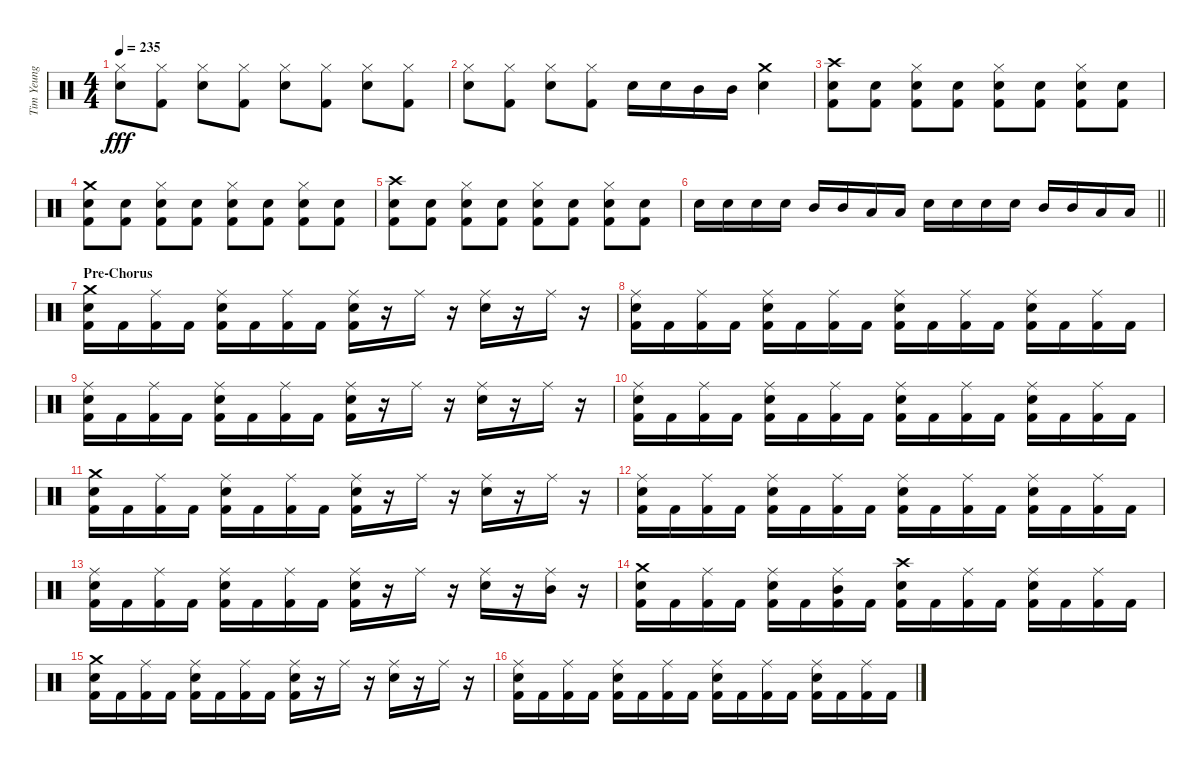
\track ("Tim Yeung" "Tim Yeung") {instrument percussion}
\staff {score}
\articulation defaults
\ts (4 4)
\tempo 235
\clef neutral
\ks c
("Hi-Hat (closed)" "Electric Snare (hit)").8{dy fff} ("Hi-Hat (closed)" "Kick (hit) 2").8 ("Hi-Hat (closed)" "Electric Snare (hit)").8 ("Hi-Hat (closed)" "Kick (hit) 2").8 ("Hi-Hat (closed)" "Electric Snare (hit)").8 ("Hi-Hat (closed)" "Kick (hit) 2").8 ("Hi-Hat (closed)" "Electric Snare (hit)").8 ("Hi-Hat (closed)" "Kick (hit) 2").8 |
("Hi-Hat (closed)" "Electric Snare (hit)").8 ("Hi-Hat (closed)" "Kick (hit) 2").8 ("Hi-Hat (closed)" "Electric Snare (hit)").8 ("Hi-Hat (closed)" "Kick (hit) 2").8 "Electric Snare (hit)".16 "Electric Snare (hit)".16 "Mid Tom (hit)".16 "Mid Tom (hit)".16 ("Crash medium (hit)" "Electric Snare (hit)").4 |
("Crash high (hit)" "Electric Snare (hit)" "Kick (hit) 2").8 ("Electric Snare (hit)" "Kick (hit) 2").8 ("Hi-Hat (closed)" "Electric Snare (hit)" "Kick (hit) 2").8 ("Electric Snare (hit)" "Kick (hit) 2").8 ("Hi-Hat (closed)" "Electric Snare (hit)" "Kick (hit) 2").8 ("Electric Snare (hit)" "Kick (hit) 2").8 ("Hi-Hat (closed)" "Electric Snare (hit)" "Kick (hit) 2").8 ("Electric Snare (hit)" "Kick (hit) 2").8 |
("Crash medium (hit)" "Electric Snare (hit)" "Kick (hit) 2").8 ("Electric Snare (hit)" "Kick (hit) 2").8 ("Hi-Hat (closed)" "Electric Snare (hit)" "Kick (hit) 2").8 ("Electric Snare (hit)" "Kick (hit) 2").8 ("Hi-Hat (closed)" "Electric Snare (hit)" "Kick (hit) 2").8 ("Electric Snare (hit)" "Kick (hit) 2").8 ("Hi-Hat (closed)" "Electric Snare (hit)" "Kick (hit) 2").8 ("Electric Snare (hit)" "Kick (hit) 2").8 |
("Crash high (hit)" "Electric Snare (hit)" "Kick (hit) 2").8 ("Electric Snare (hit)" "Kick (hit) 2").8 ("Hi-Hat (closed)" "Electric Snare (hit)" "Kick (hit) 2").8 ("Electric Snare (hit)" "Kick (hit) 2").8 ("Hi-Hat (closed)" "Electric Snare (hit)" "Kick (hit) 2").8 ("Electric Snare (hit)" "Kick (hit) 2").8 ("Hi-Hat (closed)" "Electric Snare (hit)" "Kick (hit) 2").8 ("Electric Snare (hit)" "Kick (hit) 2").8 |
\barLineRight lightlight "Electric Snare (hit)".16 "Electric Snare (hit)".16 "Electric Snare (hit)".16 "Electric Snare (hit)".16 "Mid Tom (hit)".16 "Mid Tom (hit)".16 "Low Tom (hit)".16 "Low Tom (hit)".16 "Electric Snare (hit)".16 "Electric Snare (hit)".16 "Electric Snare (hit)".16 "Electric Snare (hit)".16 "Mid Tom (hit)".16 "Mid Tom (hit)".16 "Low Tom (hit)".16 "Low Tom (hit)".16
|
\section ("" "Pre-Chorus")
("Crash medium (hit)" "Electric Snare (hit)" "Kick (hit) 2").16 "Kick (hit) 2".16 ("Ride (middle)" "Kick (hit) 2").16 "Kick (hit) 2".16 ("Ride (middle)" "Electric Snare (hit)" "Kick (hit) 2").16 "Kick (hit) 2".16 ("Ride (middle)" "Kick (hit) 2").16 "Kick (hit) 2".16 ("Ride (middle)" "Electric Snare (hit)" "Kick (hit) 2").16 r.16 "Ride (middle)".16 r.16 ("Ride (middle)" "Electric Snare (hit)").16 r.16 "Ride (middle)".16 r.16 |
("Ride (middle)" "Electric Snare (hit)" "Kick (hit) 2").16 "Kick (hit) 2".16 ("Ride (middle)" "Kick (hit) 2").16 "Kick (hit) 2".16 ("Ride (middle)" "Electric Snare (hit)" "Kick (hit) 2").16 "Kick (hit) 2".16 ("Ride (middle)" "Kick (hit) 2").16 "Kick (hit) 2".16 ("Ride (middle)" "Electric Snare (hit)" "Kick (hit) 2").16 "Kick (hit) 2".16 ("Ride (middle)" "Kick (hit) 2").16 "Kick (hit) 2".16 ("Ride (middle)" "Electric Snare (hit)" "Kick (hit) 2").16 "Kick (hit) 2".16 ("Ride (middle)" "Kick (hit) 2").16 "Kick (hit) 2".16 |
("Ride (middle)" "Electric Snare (hit)" "Kick (hit) 2").16 "Kick (hit) 2".16 ("Ride (middle)" "Kick (hit) 2").16 "Kick (hit) 2".16 ("Ride (middle)" "Electric Snare (hit)" "Kick (hit) 2").16 "Kick (hit) 2".16 ("Ride (middle)" "Kick (hit) 2").16 "Kick (hit) 2".16 ("Ride (middle)" "Electric Snare (hit)" "Kick (hit) 2").16 r.16 "Ride (middle)".16 r.16 ("Ride (middle)" "Electric Snare (hit)").16 r.16 "Ride (middle)".16 r.16 |
("Ride (middle)" "Electric Snare (hit)" "Kick (hit) 2").16 "Kick (hit) 2".16 ("Ride (middle)" "Kick (hit) 2").16 "Kick (hit) 2".16 ("Ride (middle)" "Electric Snare (hit)" "Kick (hit) 2").16 "Kick (hit) 2".16 ("Ride (middle)" "Kick (hit) 2").16 "Kick (hit) 2".16 ("Ride (middle)" "Electric Snare (hit)" "Kick (hit) 2").16 "Kick (hit) 2".16 ("Ride (middle)" "Kick (hit) 2").16 "Kick (hit) 2".16 ("Ride (middle)" "Electric Snare (hit)" "Kick (hit) 2").16 "Kick (hit) 2".16 ("Ride (middle)" "Kick (hit) 2").16 "Kick (hit) 2".16 |
("Crash medium (hit)" "Electric Snare (hit)" "Kick (hit) 2").16 "Kick (hit) 2".16 ("Ride (middle)" "Kick (hit) 2").16 "Kick (hit) 2".16 ("Ride (middle)" "Electric Snare (hit)" "Kick (hit) 2").16 "Kick (hit) 2".16 ("Ride (middle)" "Kick (hit) 2").16 "Kick (hit) 2".16 ("Ride (middle)" "Electric Snare (hit)" "Kick (hit) 2").16 r.16 "Ride (middle)".16 r.16 ("Ride (middle)" "Electric Snare (hit)").16 r.16 "Ride (middle)".16 r.16 |
("Ride (middle)" "Electric Snare (hit)" "Kick (hit) 2").16 "Kick (hit) 2".16 ("Ride (middle)" "Kick (hit) 2").16 "Kick (hit) 2".16 ("Ride (middle)" "Electric Snare (hit)" "Kick (hit) 2").16 "Kick (hit) 2".16 ("Ride (middle)" "Kick (hit) 2").16 "Kick (hit) 2".16 ("Ride (middle)" "Electric Snare (hit)" "Kick (hit) 2").16 "Kick (hit) 2".16 ("Ride (middle)" "Kick (hit) 2").16 "Kick (hit) 2".16 ("Ride (middle)" "Electric Snare (hit)" "Kick (hit) 2").16 "Kick (hit) 2".16 ("Ride (middle)" "Kick (hit) 2").16 "Kick (hit) 2".16 |
("Ride (middle)" "Electric Snare (hit)" "Kick (hit) 2").16 "Kick (hit) 2".16 ("Ride (middle)" "Kick (hit) 2").16 "Kick (hit) 2".16 ("Ride (middle)" "Electric Snare (hit)" "Kick (hit) 2").16 "Kick (hit) 2".16 ("Ride (middle)" "Kick (hit) 2").16 "Kick (hit) 2".16 ("Ride (middle)" "Electric Snare (hit)" "Kick (hit) 2").16 r.16 "Ride (middle)".16 r.16 ("Ride (middle)" "Electric Snare (hit)").16 r.16 ("Ride (middle)" "Mid Tom (hit)").16 r.16 |
("Crash medium (hit)" "Electric Snare (hit)" "Kick (hit) 2").16 "Kick (hit) 2".16 ("Ride (middle)" "Kick (hit) 2").16 "Kick (hit) 2".16 ("Ride (middle)" "Electric Snare (hit)" "Kick (hit) 2").16 "Kick (hit) 2".16 ("Ride (middle)" "Mid Tom (hit)" "Kick (hit) 2").16 "Kick (hit) 2".16 ("Crash high (hit)" "Electric Snare (hit)" "Kick (hit) 2").16 "Kick (hit) 2".16 ("Ride (middle)" "Kick (hit) 2").16 "Kick (hit) 2".16 ("Ride (middle)" "Electric Snare (hit)" "Kick (hit) 2").16 "Kick (hit) 2".16 ("Ride (middle)" "Kick (hit) 2").16 "Kick (hit) 2".16 |
("Crash medium (hit)" "Electric Snare (hit)" "Kick (hit) 2").16 "Kick (hit) 2".16 ("Ride (middle)" "Kick (hit) 2").16 "Kick (hit) 2".16 ("Ride (middle)" "Electric Snare (hit)" "Kick (hit) 2").16 "Kick (hit) 2".16 ("Ride (middle)" "Kick (hit) 2").16 "Kick (hit) 2".16 ("Ride (middle)" "Electric Snare (hit)" "Kick (hit) 2").16 r.16 "Ride (middle)".16 r.16 ("Ride (middle)" "Electric Snare (hit)").16 r.16 "Ride (middle)".16 r.16 |
("Ride (middle)" "Electric Snare (hit)" "Kick (hit) 2").16 "Kick (hit) 2".16 ("Ride (middle)" "Kick (hit) 2").16 "Kick (hit) 2".16 ("Ride (middle)" "Electric Snare (hit)" "Kick (hit) 2").16 "Kick (hit) 2".16 ("Ride (middle)" "Kick (hit) 2").16 "Kick (hit) 2".16 ("Ride (middle)" "Electric Snare (hit)" "Kick (hit) 2").16 "Kick (hit) 2".16 ("Ride (middle)" "Kick (hit) 2").16 "Kick (hit) 2".16 ("Ride (middle)" "Electric Snare (hit)" "Kick (hit) 2").16 "Kick (hit) 2".16 ("Ride (middle)" "Kick (hit) 2").16 "Kick (hit) 2".16
